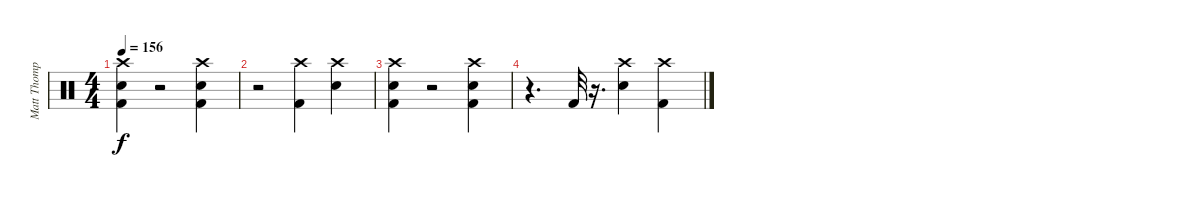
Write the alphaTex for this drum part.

\track ("Matt Thompson" "Matt Thomp") {instrument percussion}
\staff {score}
\articulation defaults
\ts (4 4)
\tempo 156
\clef neutral
\ks c
("Crash high (hit)" "Snare (hit) 2" "Kick (hit) 2").4{dy f} r.2 ("Snare (hit) 2" "Kick (hit) 2" "Crash high (hit)").4 |
r.2 ("Crash high (hit)" "Kick (hit) 2").4 ("Crash high (hit)" "Snare (hit) 2").4 |
("Snare (hit) 2" "Kick (hit) 2" "Crash high (hit)").4 r.2 ("Snare (hit) 2" "Kick (hit) 2" "Crash high (hit)").4 |
r.4{d} "Kick (hit) 2".32 r.16{d} ("Snare (hit) 2" "Crash high (hit)").4 ("Kick (hit) 2" "Crash high (hit)").4
